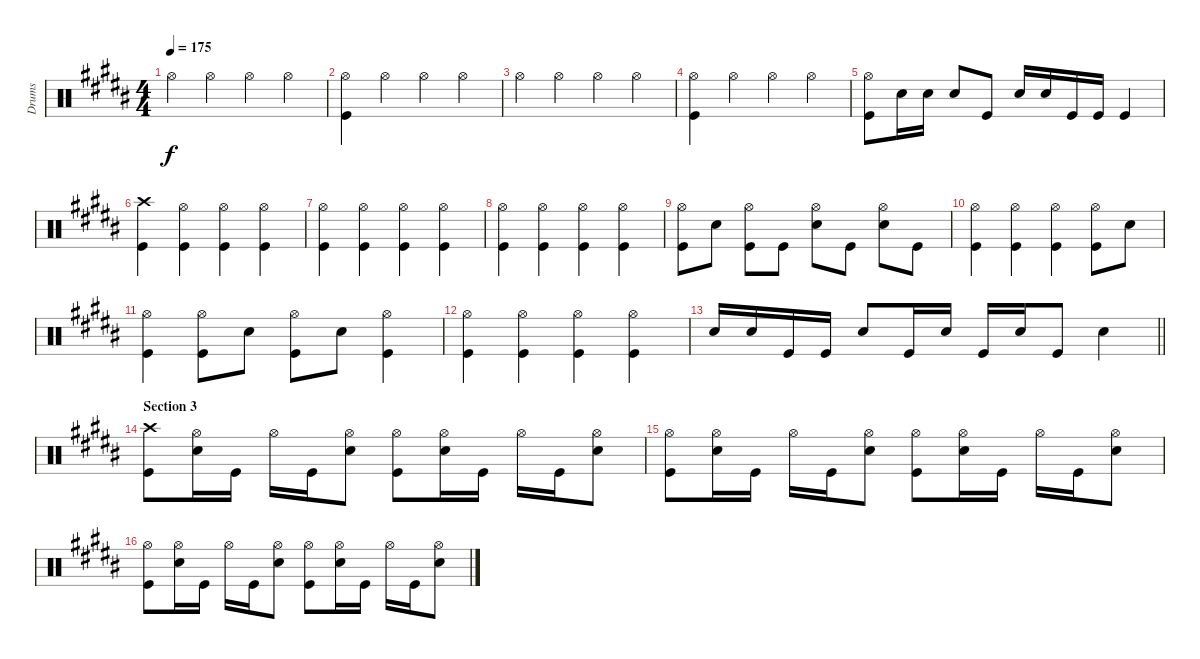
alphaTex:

\track ("Drums" "Drums") {instrument percussion}
\staff {score}
\articulation defaults
\ts (4 4)
\tempo 175
\clef neutral
\ks b "Hi-Hat (open)".4{dy f} "Hi-Hat (open)".4 "Hi-Hat (open)".4 "Hi-Hat (open)".4
|
("Hi-Hat (open)" "Kick (hit)").4 "Hi-Hat (open)".4 "Hi-Hat (open)".4 "Hi-Hat (open)".4 |
"Hi-Hat (open)".4 "Hi-Hat (open)".4 "Hi-Hat (open)".4 "Hi-Hat (open)".4 |
("Hi-Hat (open)" "Kick (hit)").4 "Hi-Hat (open)".4 "Hi-Hat (open)".4 "Hi-Hat (open)".4 |
("Hi-Hat (open)" "Kick (hit)").8 "Snare (hit) 2".16 "Snare (hit) 2".16 "Snare (hit) 2".8 "Kick (hit)".8 "Snare (hit) 2".16 "Snare (hit) 2".16 "Kick (hit)".16 "Kick (hit)".16 "Kick (hit)".4 |
("Crash high (hit)" "Kick (hit)").4 ("Hi-Hat (open)" "Kick (hit)").4 ("Hi-Hat (open)" "Kick (hit)").4 ("Hi-Hat (open)" "Kick (hit)").4 |
("Hi-Hat (open)" "Kick (hit)").4 ("Hi-Hat (open)" "Kick (hit)").4 ("Hi-Hat (open)" "Kick (hit)").4 ("Hi-Hat (open)" "Kick (hit)").4 |
("Hi-Hat (open)" "Kick (hit)").4 ("Hi-Hat (open)" "Kick (hit)").4 ("Hi-Hat (open)" "Kick (hit)").4 ("Hi-Hat (open)" "Kick (hit)").4 |
("Hi-Hat (open)" "Kick (hit)").8 "Snare (hit) 2".8 ("Hi-Hat (open)" "Kick (hit)").8 "Kick (hit)".8 ("Hi-Hat (open)" "Snare (hit) 2").8 "Kick (hit)".8 ("Hi-Hat (open)" "Snare (hit) 2").8 "Kick (hit)".8 |
("Hi-Hat (open)" "Kick (hit)").4 ("Hi-Hat (open)" "Kick (hit)").4 ("Hi-Hat (open)" "Kick (hit)").4 ("Hi-Hat (open)" "Kick (hit)").8 "Snare (hit) 2".8 |
("Hi-Hat (open)" "Kick (hit)").4 ("Hi-Hat (open)" "Kick (hit)").8 "Snare (hit) 2".8 ("Hi-Hat (open)" "Kick (hit)").8 "Snare (hit) 2".8 ("Hi-Hat (open)" "Kick (hit)").4 |
("Hi-Hat (open)" "Kick (hit)").4 ("Hi-Hat (open)" "Kick (hit)").4 ("Hi-Hat (open)" "Kick (hit)").4 ("Hi-Hat (open)" "Kick (hit)").4 |
\barLineRight lightlight "Snare (hit) 2".16 "Snare (hit) 2".16 "Kick (hit)".16 "Kick (hit)".16 "Snare (hit) 2".8 "Kick (hit)".16 "Snare (hit) 2".16 "Kick (hit)".16 "Snare (hit) 2".16 "Kick (hit)".8 "Snare (hit) 2".4
|
\section ("" "Section 3")
("Crash high (hit)" "Kick (hit)").8 ("Hi-Hat (open)" "Snare (hit) 2").16 "Kick (hit)".16 "Hi-Hat (open)".16 "Kick (hit)".16 ("Hi-Hat (open)" "Snare (hit) 2").8 ("Hi-Hat (open)" "Kick (hit)").8 ("Hi-Hat (open)" "Snare (hit) 2").16 "Kick (hit)".16 "Hi-Hat (open)".16 "Kick (hit)".16 ("Hi-Hat (open)" "Snare (hit) 2").8 |
("Hi-Hat (open)" "Kick (hit)").8 ("Hi-Hat (open)" "Snare (hit) 2").16 "Kick (hit)".16 "Hi-Hat (open)".16 "Kick (hit)".16 ("Hi-Hat (open)" "Snare (hit) 2").8 ("Hi-Hat (open)" "Kick (hit)").8 ("Hi-Hat (open)" "Snare (hit) 2").16 "Kick (hit)".16 "Hi-Hat (open)".16 "Kick (hit)".16 ("Hi-Hat (open)" "Snare (hit) 2").8 |
("Hi-Hat (open)" "Kick (hit)").8 ("Hi-Hat (open)" "Snare (hit) 2").16 "Kick (hit)".16 "Hi-Hat (open)".16 "Kick (hit)".16 ("Hi-Hat (open)" "Snare (hit) 2").8 ("Hi-Hat (open)" "Kick (hit)").8 ("Hi-Hat (open)" "Snare (hit) 2").16 "Kick (hit)".16 "Hi-Hat (open)".16 "Kick (hit)".16 ("Hi-Hat (open)" "Snare (hit) 2").8
